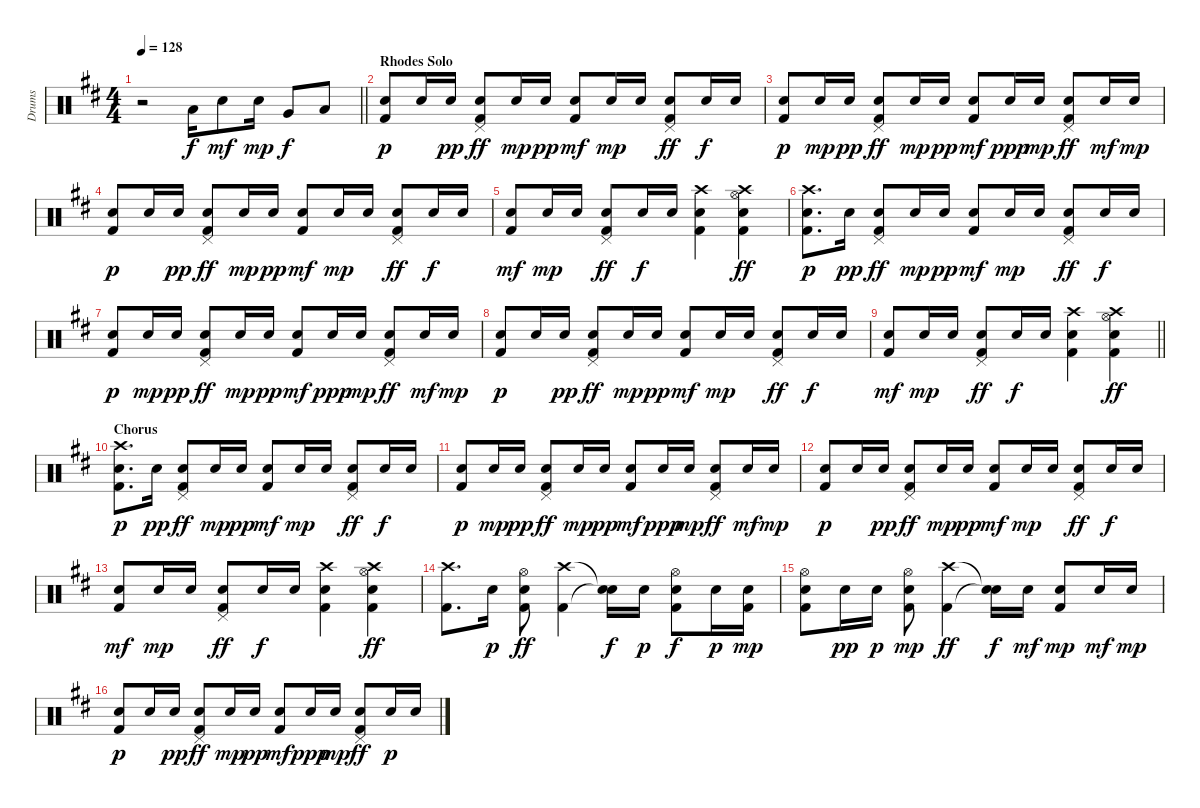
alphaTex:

\track ("Drums" "Drums") {instrument percussion}
\staff {score}
\articulation defaults
\ts (4 4)
\tempo 128
\clef neutral
\barLineRight lightlight
\ks d
r.2{dy f} "Low Tom (hit)".16 "Snare (hit) 2".8{dy mf} "Snare (hit) 2".16{dy mp} "Very Low Tom (hit)".8{dy f} "Low Floor Tom (hit)".8 |
\section ("" "Rhodes Solo")
("Kick (hit) 2" "Snare (hit) 2").8{dy p} "Snare (hit) 2".16 "Snare (hit) 2".16{dy pp} ("Kick (hit) 2" "Snare (hit) 2" "Pedal Hi-Hat (hit)").8{dy ff} "Snare (hit) 2".16{dy mp} "Snare (hit) 2".16{dy pp} ("Kick (hit) 2" "Snare (hit) 2").8{dy mf} "Snare (hit) 2".16{dy mp} "Snare (hit) 2".16 ("Kick (hit) 2" "Snare (hit) 2" "Pedal Hi-Hat (hit)").8{dy ff} "Snare (hit) 2".16{dy f} "Snare (hit) 2".16 |
("Kick (hit) 2" "Snare (hit) 2").8{dy p} "Snare (hit) 2".16{dy mp} "Snare (hit) 2".16{dy pp} ("Kick (hit) 2" "Snare (hit) 2" "Pedal Hi-Hat (hit)").8{dy ff} "Snare (hit) 2".16{dy mp} "Snare (hit) 2".16{dy pp} ("Kick (hit) 2" "Snare (hit) 2").8{dy mf} "Snare (hit) 2".16{dy ppp} "Snare (hit) 2".16{dy mp} ("Kick (hit) 2" "Snare (hit) 2" "Pedal Hi-Hat (hit)").8{dy ff} "Snare (hit) 2".16{dy mf} "Snare (hit) 2".16{dy mp} |
("Kick (hit) 2" "Snare (hit) 2").8{dy p} "Snare (hit) 2".16 "Snare (hit) 2".16{dy pp} ("Kick (hit) 2" "Snare (hit) 2" "Pedal Hi-Hat (hit)").8{dy ff} "Snare (hit) 2".16{dy mp} "Snare (hit) 2".16{dy pp} ("Kick (hit) 2" "Snare (hit) 2").8{dy mf} "Snare (hit) 2".16{dy mp} "Snare (hit) 2".16 ("Kick (hit) 2" "Snare (hit) 2" "Pedal Hi-Hat (hit)").8{dy ff} "Snare (hit) 2".16{dy f} "Snare (hit) 2".16 |
("Kick (hit) 2" "Snare (hit) 2").8{dy mf} "Snare (hit) 2".16{dy mp} "Snare (hit) 2".16 ("Kick (hit) 2" "Snare (hit) 2" "Pedal Hi-Hat (hit)").8{dy ff} "Snare (hit) 2".16{dy f} "Snare (hit) 2".16 ("Kick (hit) 2" "Snare (hit) 2" "Crash high (hit)").4 ("Kick (hit) 2" "Snare (hit) 2" "Hi-Hat (open)" "Crash high (hit)").4{dy ff} |
("Kick (hit) 2" "Snare (hit) 2" "Crash high (hit)").8{d dy p} "Snare (hit) 2".16{dy pp} ("Kick (hit) 2" "Snare (hit) 2" "Pedal Hi-Hat (hit)").8{dy ff} "Snare (hit) 2".16{dy mp} "Snare (hit) 2".16{dy pp} ("Kick (hit) 2" "Snare (hit) 2").8{dy mf} "Snare (hit) 2".16{dy mp} "Snare (hit) 2".16 ("Kick (hit) 2" "Snare (hit) 2" "Pedal Hi-Hat (hit)").8{dy ff} "Snare (hit) 2".16{dy f} "Snare (hit) 2".16 |
("Kick (hit) 2" "Snare (hit) 2").8{dy p} "Snare (hit) 2".16{dy mp} "Snare (hit) 2".16{dy pp} ("Kick (hit) 2" "Snare (hit) 2" "Pedal Hi-Hat (hit)").8{dy ff} "Snare (hit) 2".16{dy mp} "Snare (hit) 2".16{dy pp} ("Kick (hit) 2" "Snare (hit) 2").8{dy mf} "Snare (hit) 2".16{dy ppp} "Snare (hit) 2".16{dy mp} ("Kick (hit) 2" "Snare (hit) 2" "Pedal Hi-Hat (hit)").8{dy ff} "Snare (hit) 2".16{dy mf} "Snare (hit) 2".16{dy mp} |
("Kick (hit) 2" "Snare (hit) 2").8{dy p} "Snare (hit) 2".16 "Snare (hit) 2".16{dy pp} ("Kick (hit) 2" "Snare (hit) 2" "Pedal Hi-Hat (hit)").8{dy ff} "Snare (hit) 2".16{dy mp} "Snare (hit) 2".16{dy pp} ("Kick (hit) 2" "Snare (hit) 2").8{dy mf} "Snare (hit) 2".16{dy mp} "Snare (hit) 2".16 ("Kick (hit) 2" "Snare (hit) 2" "Pedal Hi-Hat (hit)").8{dy ff} "Snare (hit) 2".16{dy f} "Snare (hit) 2".16 |
\barLineRight lightlight
("Kick (hit) 2" "Snare (hit) 2").8{dy mf} "Snare (hit) 2".16{dy mp} "Snare (hit) 2".16 ("Kick (hit) 2" "Snare (hit) 2" "Pedal Hi-Hat (hit)").8{dy ff} "Snare (hit) 2".16{dy f} "Snare (hit) 2".16 ("Kick (hit) 2" "Snare (hit) 2" "Crash high (hit)").4 ("Kick (hit) 2" "Snare (hit) 2" "Hi-Hat (open)" "Crash high (hit)").4{dy ff} |
\section ("" "Chorus")
("Kick (hit) 2" "Snare (hit) 2" "Crash high (hit)").8{d dy p} "Snare (hit) 2".16{dy pp} ("Kick (hit) 2" "Snare (hit) 2" "Pedal Hi-Hat (hit)").8{dy ff} "Snare (hit) 2".16{dy mp} "Snare (hit) 2".16{dy pp} ("Kick (hit) 2" "Snare (hit) 2").8{dy mf} "Snare (hit) 2".16{dy mp} "Snare (hit) 2".16 ("Kick (hit) 2" "Snare (hit) 2" "Pedal Hi-Hat (hit)").8{dy ff} "Snare (hit) 2".16{dy f} "Snare (hit) 2".16 |
("Kick (hit) 2" "Snare (hit) 2").8{dy p} "Snare (hit) 2".16{dy mp} "Snare (hit) 2".16{dy pp} ("Kick (hit) 2" "Snare (hit) 2" "Pedal Hi-Hat (hit)").8{dy ff} "Snare (hit) 2".16{dy mp} "Snare (hit) 2".16{dy pp} ("Kick (hit) 2" "Snare (hit) 2").8{dy mf} "Snare (hit) 2".16{dy ppp} "Snare (hit) 2".16{dy mp} ("Kick (hit) 2" "Snare (hit) 2" "Pedal Hi-Hat (hit)").8{dy ff} "Snare (hit) 2".16{dy mf} "Snare (hit) 2".16{dy mp} |
("Kick (hit) 2" "Snare (hit) 2").8{dy p} "Snare (hit) 2".16 "Snare (hit) 2".16{dy pp} ("Kick (hit) 2" "Snare (hit) 2" "Pedal Hi-Hat (hit)").8{dy ff} "Snare (hit) 2".16{dy mp} "Snare (hit) 2".16{dy pp} ("Kick (hit) 2" "Snare (hit) 2").8{dy mf} "Snare (hit) 2".16{dy mp} "Snare (hit) 2".16 ("Kick (hit) 2" "Snare (hit) 2" "Pedal Hi-Hat (hit)").8{dy ff} "Snare (hit) 2".16{dy f} "Snare (hit) 2".16 |
("Kick (hit) 2" "Snare (hit) 2").8{dy mf} "Snare (hit) 2".16{dy mp} "Snare (hit) 2".16 ("Kick (hit) 2" "Snare (hit) 2" "Pedal Hi-Hat (hit)").8{dy ff} "Snare (hit) 2".16{dy f} "Snare (hit) 2".16 ("Kick (hit) 2" "Snare (hit) 2" "Crash high (hit)").4 ("Kick (hit) 2" "Snare (hit) 2" "Hi-Hat (open)" "Crash high (hit)").4{dy ff} |
("Kick (hit) 2" "Crash high (hit)").8{d} "Snare (hit) 2".16{dy p} ("Kick (hit) 2" "Snare (hit) 2" "Hi-Hat (open)").8{dy ff} ("Kick (hit) 2" "Crash high (hit)").4 ("Snare (hit)"{t} "Snare (hit)"{t}).16{dy f} "Snare (hit) 2".16{dy p} ("Kick (hit) 2" "Snare (hit) 2" "Hi-Hat (open)").8{dy f} "Snare (hit) 2".16{dy p} ("Kick (hit) 2" "Snare (hit) 2").16{dy mp} |
("Kick (hit) 2" "Snare (hit) 2" "Hi-Hat (open)").8 "Snare (hit) 2".16{dy pp} "Snare (hit) 2".16{dy p} ("Kick (hit) 2" "Snare (hit) 2" "Hi-Hat (open)").8{dy mp} ("Kick (hit) 2" "Crash high (hit)").4{dy ff} ("Snare (hit)"{t} "Snare (hit)"{t}).16{dy f} "Snare (hit) 2".16{dy mf} ("Kick (hit) 2" "Snare (hit) 2").8{dy mp} "Snare (hit) 2".16{dy mf} "Snare (hit) 2".16{dy mp} |
("Kick (hit) 2" "Snare (hit) 2").8{dy p} "Snare (hit) 2".16 "Snare (hit) 2".16{dy pp} ("Kick (hit) 2" "Snare (hit) 2" "Pedal Hi-Hat (hit)").8{dy ff} "Snare (hit) 2".16{dy mp} "Snare (hit) 2".16{dy pp} ("Kick (hit) 2" "Snare (hit) 2").8{dy mf} "Snare (hit) 2".16{dy ppp} "Snare (hit) 2".16{dy mp} ("Kick (hit) 2" "Snare (hit) 2" "Pedal Hi-Hat (hit)").8{dy ff} "Snare (hit) 2".16{dy p} "Snare (hit) 2".16
